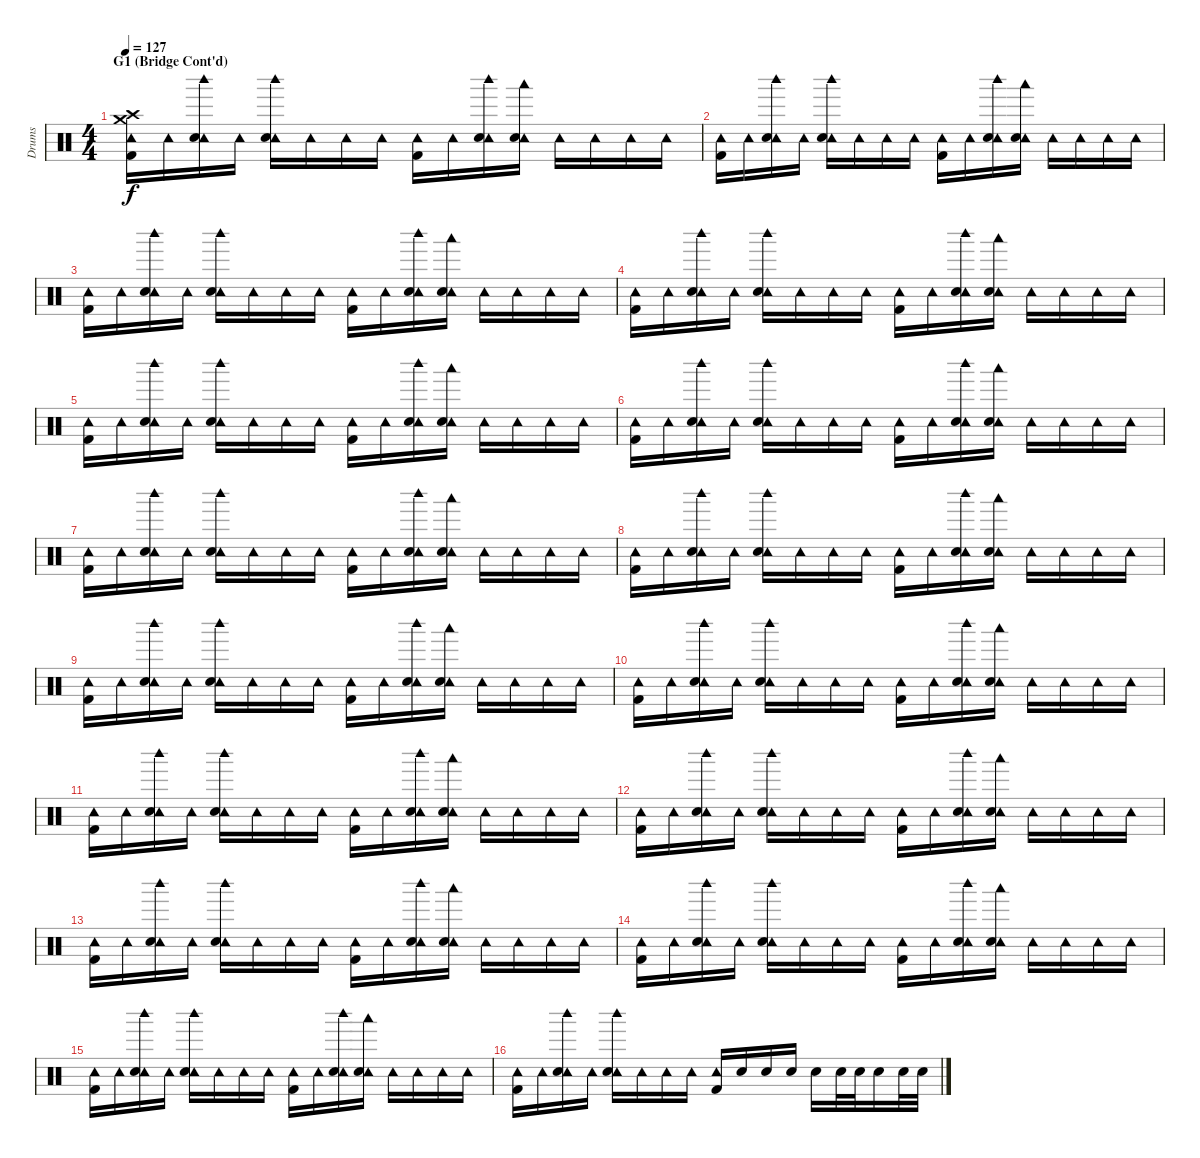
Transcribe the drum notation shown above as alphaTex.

\track ("Drums" "Drums") {instrument percussion}
\staff {score}
\articulation defaults
\ts (4 4)
\section ("" "G1 (Bridge Cont'd)")
\tempo 127
\clef neutral
\ks c
("Crash high (hit)" "Crash medium (hit)" "Tambourine (hit)" "Kick (hit) 2").16{dy f} "Tambourine (hit)".16 ("Tambourine (hit)" "Electric Snare (hit)" "Woodblock high (hit)").16 "Tambourine (hit)".16 ("Tambourine (hit)" "Electric Snare (hit)" "Woodblock high (hit)").16 "Tambourine (hit)".16 "Tambourine (hit)".16 "Tambourine (hit)".16 ("Tambourine (hit)" "Kick (hit) 2").16 "Tambourine (hit)".16 ("Tambourine (hit)" "Electric Snare (hit)" "Woodblock high (hit)").16 ("Tambourine (hit)" "Electric Snare (hit)" "Woodblock low (hit)").16 "Tambourine (hit)".16 "Tambourine (hit)".16 "Tambourine (hit)".16 "Tambourine (hit)".16 |
("Tambourine (hit)" "Kick (hit) 2").16 "Tambourine (hit)".16 ("Tambourine (hit)" "Electric Snare (hit)" "Woodblock high (hit)").16 "Tambourine (hit)".16 ("Tambourine (hit)" "Electric Snare (hit)" "Woodblock high (hit)").16 "Tambourine (hit)".16 "Tambourine (hit)".16 "Tambourine (hit)".16 ("Tambourine (hit)" "Kick (hit) 2").16 "Tambourine (hit)".16 ("Tambourine (hit)" "Electric Snare (hit)" "Woodblock high (hit)").16 ("Tambourine (hit)" "Electric Snare (hit)" "Woodblock low (hit)").16 "Tambourine (hit)".16 "Tambourine (hit)".16 "Tambourine (hit)".16 "Tambourine (hit)".16 |
("Tambourine (hit)" "Kick (hit) 2").16 "Tambourine (hit)".16 ("Tambourine (hit)" "Electric Snare (hit)" "Woodblock high (hit)").16 "Tambourine (hit)".16 ("Tambourine (hit)" "Electric Snare (hit)" "Woodblock high (hit)").16 "Tambourine (hit)".16 "Tambourine (hit)".16 "Tambourine (hit)".16 ("Tambourine (hit)" "Kick (hit) 2").16 "Tambourine (hit)".16 ("Tambourine (hit)" "Electric Snare (hit)" "Woodblock high (hit)").16 ("Tambourine (hit)" "Electric Snare (hit)" "Woodblock low (hit)").16 "Tambourine (hit)".16 "Tambourine (hit)".16 "Tambourine (hit)".16 "Tambourine (hit)".16 |
("Tambourine (hit)" "Kick (hit) 2").16 "Tambourine (hit)".16 ("Tambourine (hit)" "Electric Snare (hit)" "Woodblock high (hit)").16 "Tambourine (hit)".16 ("Tambourine (hit)" "Electric Snare (hit)" "Woodblock high (hit)").16 "Tambourine (hit)".16 "Tambourine (hit)".16 "Tambourine (hit)".16 ("Tambourine (hit)" "Kick (hit) 2").16 "Tambourine (hit)".16 ("Tambourine (hit)" "Electric Snare (hit)" "Woodblock high (hit)").16 ("Tambourine (hit)" "Electric Snare (hit)" "Woodblock low (hit)").16 "Tambourine (hit)".16 "Tambourine (hit)".16 "Tambourine (hit)".16 "Tambourine (hit)".16 |
("Tambourine (hit)" "Kick (hit) 2").16 "Tambourine (hit)".16 ("Tambourine (hit)" "Electric Snare (hit)" "Woodblock high (hit)").16 "Tambourine (hit)".16 ("Tambourine (hit)" "Electric Snare (hit)" "Woodblock high (hit)").16 "Tambourine (hit)".16 "Tambourine (hit)".16 "Tambourine (hit)".16 ("Tambourine (hit)" "Kick (hit) 2").16 "Tambourine (hit)".16 ("Tambourine (hit)" "Electric Snare (hit)" "Woodblock high (hit)").16 ("Tambourine (hit)" "Electric Snare (hit)" "Woodblock low (hit)").16 "Tambourine (hit)".16 "Tambourine (hit)".16 "Tambourine (hit)".16 "Tambourine (hit)".16 |
("Tambourine (hit)" "Kick (hit) 2").16 "Tambourine (hit)".16 ("Tambourine (hit)" "Electric Snare (hit)" "Woodblock high (hit)").16 "Tambourine (hit)".16 ("Tambourine (hit)" "Electric Snare (hit)" "Woodblock high (hit)").16 "Tambourine (hit)".16 "Tambourine (hit)".16 "Tambourine (hit)".16 ("Tambourine (hit)" "Kick (hit) 2").16 "Tambourine (hit)".16 ("Tambourine (hit)" "Electric Snare (hit)" "Woodblock high (hit)").16 ("Tambourine (hit)" "Electric Snare (hit)" "Woodblock low (hit)").16 "Tambourine (hit)".16 "Tambourine (hit)".16 "Tambourine (hit)".16 "Tambourine (hit)".16 |
("Tambourine (hit)" "Kick (hit) 2").16 "Tambourine (hit)".16 ("Tambourine (hit)" "Electric Snare (hit)" "Woodblock high (hit)").16 "Tambourine (hit)".16 ("Tambourine (hit)" "Electric Snare (hit)" "Woodblock high (hit)").16 "Tambourine (hit)".16 "Tambourine (hit)".16 "Tambourine (hit)".16 ("Tambourine (hit)" "Kick (hit) 2").16 "Tambourine (hit)".16 ("Tambourine (hit)" "Electric Snare (hit)" "Woodblock high (hit)").16 ("Tambourine (hit)" "Electric Snare (hit)" "Woodblock low (hit)").16 "Tambourine (hit)".16 "Tambourine (hit)".16 "Tambourine (hit)".16 "Tambourine (hit)".16 |
("Tambourine (hit)" "Kick (hit) 2").16 "Tambourine (hit)".16 ("Tambourine (hit)" "Electric Snare (hit)" "Woodblock high (hit)").16 "Tambourine (hit)".16 ("Tambourine (hit)" "Electric Snare (hit)" "Woodblock high (hit)").16 "Tambourine (hit)".16 "Tambourine (hit)".16 "Tambourine (hit)".16 ("Tambourine (hit)" "Kick (hit) 2").16 "Tambourine (hit)".16 ("Tambourine (hit)" "Electric Snare (hit)" "Woodblock high (hit)").16 ("Tambourine (hit)" "Electric Snare (hit)" "Woodblock low (hit)").16 "Tambourine (hit)".16 "Tambourine (hit)".16 "Tambourine (hit)".16 "Tambourine (hit)".16 |
("Tambourine (hit)" "Kick (hit) 2").16 "Tambourine (hit)".16 ("Tambourine (hit)" "Electric Snare (hit)" "Woodblock high (hit)").16 "Tambourine (hit)".16 ("Tambourine (hit)" "Electric Snare (hit)" "Woodblock high (hit)").16 "Tambourine (hit)".16 "Tambourine (hit)".16 "Tambourine (hit)".16 ("Tambourine (hit)" "Kick (hit) 2").16 "Tambourine (hit)".16 ("Tambourine (hit)" "Electric Snare (hit)" "Woodblock high (hit)").16 ("Tambourine (hit)" "Electric Snare (hit)" "Woodblock low (hit)").16 "Tambourine (hit)".16 "Tambourine (hit)".16 "Tambourine (hit)".16 "Tambourine (hit)".16 |
("Tambourine (hit)" "Kick (hit) 2").16 "Tambourine (hit)".16 ("Tambourine (hit)" "Electric Snare (hit)" "Woodblock high (hit)").16 "Tambourine (hit)".16 ("Tambourine (hit)" "Electric Snare (hit)" "Woodblock high (hit)").16 "Tambourine (hit)".16 "Tambourine (hit)".16 "Tambourine (hit)".16 ("Tambourine (hit)" "Kick (hit) 2").16 "Tambourine (hit)".16 ("Tambourine (hit)" "Electric Snare (hit)" "Woodblock high (hit)").16 ("Tambourine (hit)" "Electric Snare (hit)" "Woodblock low (hit)").16 "Tambourine (hit)".16 "Tambourine (hit)".16 "Tambourine (hit)".16 "Tambourine (hit)".16 |
("Tambourine (hit)" "Kick (hit) 2").16 "Tambourine (hit)".16 ("Tambourine (hit)" "Electric Snare (hit)" "Woodblock high (hit)").16 "Tambourine (hit)".16 ("Tambourine (hit)" "Electric Snare (hit)" "Woodblock high (hit)").16 "Tambourine (hit)".16 "Tambourine (hit)".16 "Tambourine (hit)".16 ("Tambourine (hit)" "Kick (hit) 2").16 "Tambourine (hit)".16 ("Tambourine (hit)" "Electric Snare (hit)" "Woodblock high (hit)").16 ("Tambourine (hit)" "Electric Snare (hit)" "Woodblock low (hit)").16 "Tambourine (hit)".16 "Tambourine (hit)".16 "Tambourine (hit)".16 "Tambourine (hit)".16 |
("Tambourine (hit)" "Kick (hit) 2").16 "Tambourine (hit)".16 ("Tambourine (hit)" "Electric Snare (hit)" "Woodblock high (hit)").16 "Tambourine (hit)".16 ("Tambourine (hit)" "Electric Snare (hit)" "Woodblock high (hit)").16 "Tambourine (hit)".16 "Tambourine (hit)".16 "Tambourine (hit)".16 ("Tambourine (hit)" "Kick (hit) 2").16 "Tambourine (hit)".16 ("Tambourine (hit)" "Electric Snare (hit)" "Woodblock high (hit)").16 ("Tambourine (hit)" "Electric Snare (hit)" "Woodblock low (hit)").16 "Tambourine (hit)".16 "Tambourine (hit)".16 "Tambourine (hit)".16 "Tambourine (hit)".16 |
("Tambourine (hit)" "Kick (hit) 2").16 "Tambourine (hit)".16 ("Tambourine (hit)" "Electric Snare (hit)" "Woodblock high (hit)").16 "Tambourine (hit)".16 ("Tambourine (hit)" "Electric Snare (hit)" "Woodblock high (hit)").16 "Tambourine (hit)".16 "Tambourine (hit)".16 "Tambourine (hit)".16 ("Tambourine (hit)" "Kick (hit) 2").16 "Tambourine (hit)".16 ("Tambourine (hit)" "Electric Snare (hit)" "Woodblock high (hit)").16 ("Tambourine (hit)" "Electric Snare (hit)" "Woodblock low (hit)").16 "Tambourine (hit)".16 "Tambourine (hit)".16 "Tambourine (hit)".16 "Tambourine (hit)".16 |
("Tambourine (hit)" "Kick (hit) 2").16 "Tambourine (hit)".16 ("Tambourine (hit)" "Electric Snare (hit)" "Woodblock high (hit)").16 "Tambourine (hit)".16 ("Tambourine (hit)" "Electric Snare (hit)" "Woodblock high (hit)").16 "Tambourine (hit)".16 "Tambourine (hit)".16 "Tambourine (hit)".16 ("Tambourine (hit)" "Kick (hit) 2").16 "Tambourine (hit)".16 ("Tambourine (hit)" "Electric Snare (hit)" "Woodblock high (hit)").16 ("Tambourine (hit)" "Electric Snare (hit)" "Woodblock low (hit)").16 "Tambourine (hit)".16 "Tambourine (hit)".16 "Tambourine (hit)".16 "Tambourine (hit)".16 |
("Tambourine (hit)" "Kick (hit) 2").16 "Tambourine (hit)".16 ("Tambourine (hit)" "Electric Snare (hit)" "Woodblock high (hit)").16 "Tambourine (hit)".16 ("Tambourine (hit)" "Electric Snare (hit)" "Woodblock high (hit)").16 "Tambourine (hit)".16 "Tambourine (hit)".16 "Tambourine (hit)".16 ("Tambourine (hit)" "Kick (hit) 2").16 "Tambourine (hit)".16 ("Tambourine (hit)" "Electric Snare (hit)" "Woodblock high (hit)").16 ("Tambourine (hit)" "Electric Snare (hit)" "Woodblock low (hit)").16 "Tambourine (hit)".16 "Tambourine (hit)".16 "Tambourine (hit)".16 "Tambourine (hit)".16 |
("Tambourine (hit)" "Kick (hit) 2").16 "Tambourine (hit)".16 ("Tambourine (hit)" "Electric Snare (hit)" "Woodblock high (hit)").16 "Tambourine (hit)".16 ("Tambourine (hit)" "Electric Snare (hit)" "Woodblock high (hit)").16 "Tambourine (hit)".16 "Tambourine (hit)".16 "Tambourine (hit)".16 ("Tambourine (hit)" "Kick (hit) 2").16 "Electric Snare (hit)".16 "Electric Snare (hit)".16 "Electric Snare (hit)".16 "Electric Snare (hit)".16 "Electric Snare (hit)".32 "Electric Snare (hit)".32 "Electric Snare (hit)".16 "Electric Snare (hit)".32 "Electric Snare (hit)".32
